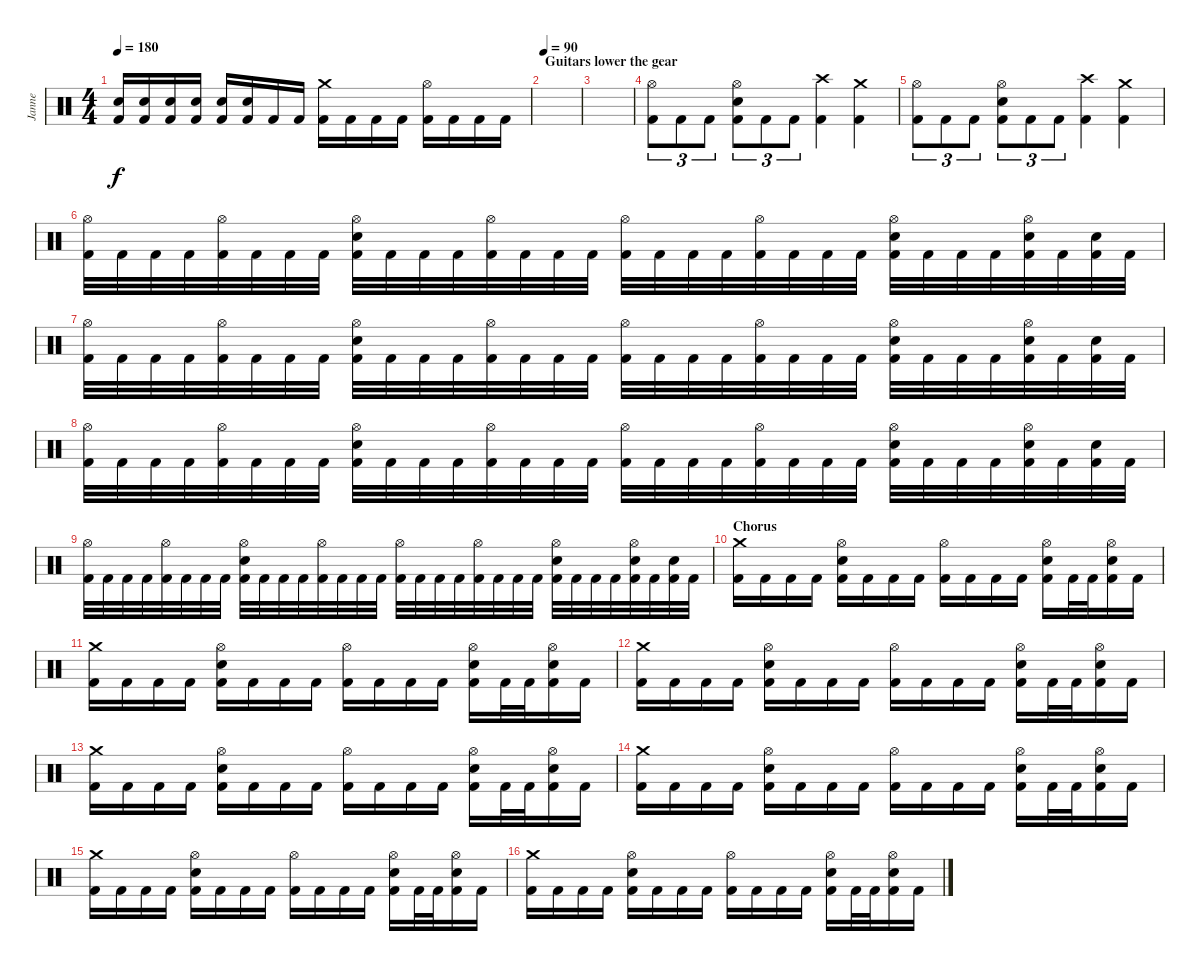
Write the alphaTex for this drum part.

\track ("Janne" "Janne") {instrument percussion}
\staff {score}
\articulation defaults
\ts (4 4)
\tempo 180
\clef neutral
\ks c
("Electric Snare (hit)" "Kick (hit) 2").16{dy f} ("Electric Snare (hit)" "Kick (hit) 2").16 ("Electric Snare (hit)" "Kick (hit) 2").16 ("Electric Snare (hit)" "Kick (hit) 2").16 ("Electric Snare (hit)" "Kick (hit) 2").16 ("Electric Snare (hit)" "Kick (hit) 2").16 "Kick (hit) 2".16 "Kick (hit) 2".16 ("Crash medium (hit)" "Kick (hit) 2").16 "Kick (hit) 2".16 "Kick (hit) 2".16 "Kick (hit) 2".16 ("Hi-Hat (open)" "Kick (hit) 2").16 "Kick (hit) 2".16 "Kick (hit) 2".16 "Kick (hit) 2".16 |
\section ("" "Guitars lower the gear")
\tempo 90
|
|
("Hi-Hat (open)" "Kick (hit) 2").8{tu (3 2)} "Kick (hit) 2".8{tu (3 2)} "Kick (hit) 2".8{tu (3 2)} ("Hi-Hat (open)" "Electric Snare (hit)" "Kick (hit) 2").8{tu (3 2)} "Kick (hit) 2".8{tu (3 2)} "Kick (hit) 2".8{tu (3 2)} ("Crash high (hit)" "Kick (hit) 2").4 ("Crash medium (hit)" "Kick (hit) 2").4 |
("Hi-Hat (open)" "Kick (hit) 2").8{tu (3 2)} "Kick (hit) 2".8{tu (3 2)} "Kick (hit) 2".8{tu (3 2)} ("Hi-Hat (open)" "Electric Snare (hit)" "Kick (hit) 2").8{tu (3 2)} "Kick (hit) 2".8{tu (3 2)} "Kick (hit) 2".8{tu (3 2)} ("Crash high (hit)" "Kick (hit) 2").4 ("Crash medium (hit)" "Kick (hit) 2").4 |
("Hi-Hat (open)" "Kick (hit) 2").32 "Kick (hit) 2".32 "Kick (hit) 2".32 "Kick (hit) 2".32 ("Hi-Hat (open)" "Kick (hit) 2").32 "Kick (hit) 2".32 "Kick (hit) 2".32 "Kick (hit) 2".32 ("Hi-Hat (open)" "Electric Snare (hit)" "Kick (hit) 2").32 "Kick (hit) 2".32 "Kick (hit) 2".32 "Kick (hit) 2".32 ("Hi-Hat (open)" "Kick (hit) 2").32 "Kick (hit) 2".32 "Kick (hit) 2".32 "Kick (hit) 2".32 ("Hi-Hat (open)" "Kick (hit) 2").32 "Kick (hit) 2".32 "Kick (hit) 2".32 "Kick (hit) 2".32 ("Hi-Hat (open)" "Kick (hit) 2").32 "Kick (hit) 2".32 "Kick (hit) 2".32 "Kick (hit) 2".32 ("Hi-Hat (open)" "Electric Snare (hit)" "Kick (hit) 2").32 "Kick (hit) 2".32 "Kick (hit) 2".32 "Kick (hit) 2".32 ("Hi-Hat (open)" "Electric Snare (hit)" "Kick (hit) 2").32 "Kick (hit) 2".32 ("Electric Snare (hit)" "Kick (hit) 2").32 "Kick (hit) 2".32 |
("Hi-Hat (open)" "Kick (hit) 2").32 "Kick (hit) 2".32 "Kick (hit) 2".32 "Kick (hit) 2".32 ("Hi-Hat (open)" "Kick (hit) 2").32 "Kick (hit) 2".32 "Kick (hit) 2".32 "Kick (hit) 2".32 ("Hi-Hat (open)" "Electric Snare (hit)" "Kick (hit) 2").32 "Kick (hit) 2".32 "Kick (hit) 2".32 "Kick (hit) 2".32 ("Hi-Hat (open)" "Kick (hit) 2").32 "Kick (hit) 2".32 "Kick (hit) 2".32 "Kick (hit) 2".32 ("Hi-Hat (open)" "Kick (hit) 2").32 "Kick (hit) 2".32 "Kick (hit) 2".32 "Kick (hit) 2".32 ("Hi-Hat (open)" "Kick (hit) 2").32 "Kick (hit) 2".32 "Kick (hit) 2".32 "Kick (hit) 2".32 ("Hi-Hat (open)" "Electric Snare (hit)" "Kick (hit) 2").32 "Kick (hit) 2".32 "Kick (hit) 2".32 "Kick (hit) 2".32 ("Hi-Hat (open)" "Electric Snare (hit)" "Kick (hit) 2").32 "Kick (hit) 2".32 ("Electric Snare (hit)" "Kick (hit) 2").32 "Kick (hit) 2".32 |
("Hi-Hat (open)" "Kick (hit) 2").32 "Kick (hit) 2".32 "Kick (hit) 2".32 "Kick (hit) 2".32 ("Hi-Hat (open)" "Kick (hit) 2").32 "Kick (hit) 2".32 "Kick (hit) 2".32 "Kick (hit) 2".32 ("Hi-Hat (open)" "Electric Snare (hit)" "Kick (hit) 2").32 "Kick (hit) 2".32 "Kick (hit) 2".32 "Kick (hit) 2".32 ("Hi-Hat (open)" "Kick (hit) 2").32 "Kick (hit) 2".32 "Kick (hit) 2".32 "Kick (hit) 2".32 ("Hi-Hat (open)" "Kick (hit) 2").32 "Kick (hit) 2".32 "Kick (hit) 2".32 "Kick (hit) 2".32 ("Hi-Hat (open)" "Kick (hit) 2").32 "Kick (hit) 2".32 "Kick (hit) 2".32 "Kick (hit) 2".32 ("Hi-Hat (open)" "Electric Snare (hit)" "Kick (hit) 2").32 "Kick (hit) 2".32 "Kick (hit) 2".32 "Kick (hit) 2".32 ("Hi-Hat (open)" "Electric Snare (hit)" "Kick (hit) 2").32 "Kick (hit) 2".32 ("Electric Snare (hit)" "Kick (hit) 2").32 "Kick (hit) 2".32 |
("Hi-Hat (open)" "Kick (hit) 2").32 "Kick (hit) 2".32 "Kick (hit) 2".32 "Kick (hit) 2".32 ("Hi-Hat (open)" "Kick (hit) 2").32 "Kick (hit) 2".32 "Kick (hit) 2".32 "Kick (hit) 2".32 ("Hi-Hat (open)" "Electric Snare (hit)" "Kick (hit) 2").32 "Kick (hit) 2".32 "Kick (hit) 2".32 "Kick (hit) 2".32 ("Hi-Hat (open)" "Kick (hit) 2").32 "Kick (hit) 2".32 "Kick (hit) 2".32 "Kick (hit) 2".32 ("Hi-Hat (open)" "Kick (hit) 2").32 "Kick (hit) 2".32 "Kick (hit) 2".32 "Kick (hit) 2".32 ("Hi-Hat (open)" "Kick (hit) 2").32 "Kick (hit) 2".32 "Kick (hit) 2".32 "Kick (hit) 2".32 ("Hi-Hat (open)" "Electric Snare (hit)" "Kick (hit) 2").32 "Kick (hit) 2".32 "Kick (hit) 2".32 "Kick (hit) 2".32 ("Hi-Hat (open)" "Electric Snare (hit)" "Kick (hit) 2").32 "Kick (hit) 2".32 ("Electric Snare (hit)" "Kick (hit) 2").32 "Kick (hit) 2".32 |
\section ("" "Chorus")
("Crash medium (hit)" "Kick (hit) 2").16 "Kick (hit) 2".16 "Kick (hit) 2".16 "Kick (hit) 2".16 ("Hi-Hat (open)" "Electric Snare (hit)" "Kick (hit) 2").16 "Kick (hit) 2".16 "Kick (hit) 2".16 "Kick (hit) 2".16 ("Hi-Hat (open)" "Kick (hit) 2").16 "Kick (hit) 2".16 "Kick (hit) 2".16 "Kick (hit) 2".16 ("Hi-Hat (open)" "Electric Snare (hit)" "Kick (hit) 2").16 "Kick (hit) 2".32 "Kick (hit) 2".32 ("Hi-Hat (open)" "Electric Snare (hit)" "Kick (hit) 2").16 "Kick (hit) 2".16 |
("Crash medium (hit)" "Kick (hit) 2").16 "Kick (hit) 2".16 "Kick (hit) 2".16 "Kick (hit) 2".16 ("Hi-Hat (open)" "Electric Snare (hit)" "Kick (hit) 2").16 "Kick (hit) 2".16 "Kick (hit) 2".16 "Kick (hit) 2".16 ("Hi-Hat (open)" "Kick (hit) 2").16 "Kick (hit) 2".16 "Kick (hit) 2".16 "Kick (hit) 2".16 ("Hi-Hat (open)" "Electric Snare (hit)" "Kick (hit) 2").16 "Kick (hit) 2".32 "Kick (hit) 2".32 ("Hi-Hat (open)" "Electric Snare (hit)" "Kick (hit) 2").16 "Kick (hit) 2".16 |
("Crash medium (hit)" "Kick (hit) 2").16 "Kick (hit) 2".16 "Kick (hit) 2".16 "Kick (hit) 2".16 ("Hi-Hat (open)" "Electric Snare (hit)" "Kick (hit) 2").16 "Kick (hit) 2".16 "Kick (hit) 2".16 "Kick (hit) 2".16 ("Hi-Hat (open)" "Kick (hit) 2").16 "Kick (hit) 2".16 "Kick (hit) 2".16 "Kick (hit) 2".16 ("Hi-Hat (open)" "Electric Snare (hit)" "Kick (hit) 2").16 "Kick (hit) 2".32 "Kick (hit) 2".32 ("Hi-Hat (open)" "Electric Snare (hit)" "Kick (hit) 2").16 "Kick (hit) 2".16 |
("Crash medium (hit)" "Kick (hit) 2").16 "Kick (hit) 2".16 "Kick (hit) 2".16 "Kick (hit) 2".16 ("Hi-Hat (open)" "Electric Snare (hit)" "Kick (hit) 2").16 "Kick (hit) 2".16 "Kick (hit) 2".16 "Kick (hit) 2".16 ("Hi-Hat (open)" "Kick (hit) 2").16 "Kick (hit) 2".16 "Kick (hit) 2".16 "Kick (hit) 2".16 ("Hi-Hat (open)" "Electric Snare (hit)" "Kick (hit) 2").16 "Kick (hit) 2".32 "Kick (hit) 2".32 ("Hi-Hat (open)" "Electric Snare (hit)" "Kick (hit) 2").16 "Kick (hit) 2".16 |
("Crash medium (hit)" "Kick (hit) 2").16 "Kick (hit) 2".16 "Kick (hit) 2".16 "Kick (hit) 2".16 ("Hi-Hat (open)" "Electric Snare (hit)" "Kick (hit) 2").16 "Kick (hit) 2".16 "Kick (hit) 2".16 "Kick (hit) 2".16 ("Hi-Hat (open)" "Kick (hit) 2").16 "Kick (hit) 2".16 "Kick (hit) 2".16 "Kick (hit) 2".16 ("Hi-Hat (open)" "Electric Snare (hit)" "Kick (hit) 2").16 "Kick (hit) 2".32 "Kick (hit) 2".32 ("Hi-Hat (open)" "Electric Snare (hit)" "Kick (hit) 2").16 "Kick (hit) 2".16 |
("Crash medium (hit)" "Kick (hit) 2").16 "Kick (hit) 2".16 "Kick (hit) 2".16 "Kick (hit) 2".16 ("Hi-Hat (open)" "Electric Snare (hit)" "Kick (hit) 2").16 "Kick (hit) 2".16 "Kick (hit) 2".16 "Kick (hit) 2".16 ("Hi-Hat (open)" "Kick (hit) 2").16 "Kick (hit) 2".16 "Kick (hit) 2".16 "Kick (hit) 2".16 ("Hi-Hat (open)" "Electric Snare (hit)" "Kick (hit) 2").16 "Kick (hit) 2".32 "Kick (hit) 2".32 ("Hi-Hat (open)" "Electric Snare (hit)" "Kick (hit) 2").16 "Kick (hit) 2".16 |
("Crash medium (hit)" "Kick (hit) 2").16 "Kick (hit) 2".16 "Kick (hit) 2".16 "Kick (hit) 2".16 ("Hi-Hat (open)" "Electric Snare (hit)" "Kick (hit) 2").16 "Kick (hit) 2".16 "Kick (hit) 2".16 "Kick (hit) 2".16 ("Hi-Hat (open)" "Kick (hit) 2").16 "Kick (hit) 2".16 "Kick (hit) 2".16 "Kick (hit) 2".16 ("Hi-Hat (open)" "Electric Snare (hit)" "Kick (hit) 2").16 "Kick (hit) 2".32 "Kick (hit) 2".32 ("Hi-Hat (open)" "Electric Snare (hit)" "Kick (hit) 2").16 "Kick (hit) 2".16
